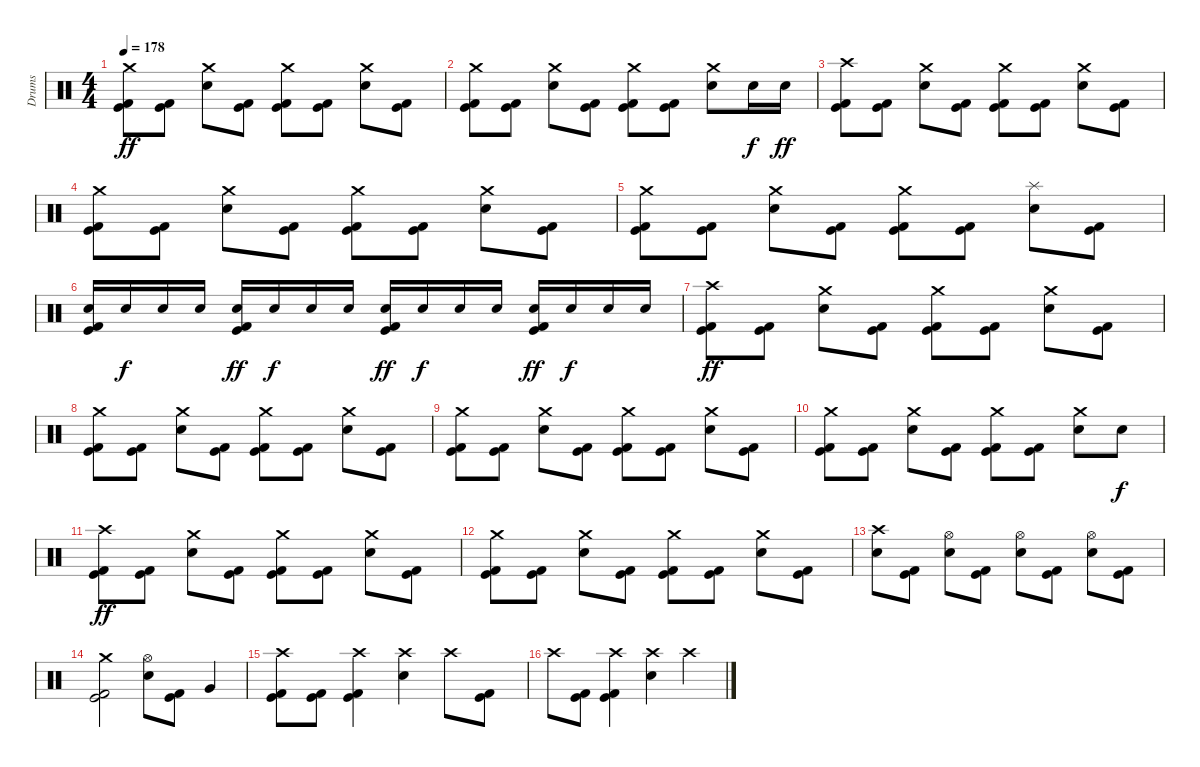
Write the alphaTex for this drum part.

\track ("Drums" "Drums") {instrument percussion}
\staff {score}
\articulation defaults
\ts (4 4)
\tempo 178
\clef neutral
\ks c
("Kick (hit)" "Kick (hit) 2" "Crash medium (hit)").8{dy ff} ("Kick (hit)" "Kick (hit) 2").8 ("Electric Snare (hit)" "Crash medium (hit)").8 ("Kick (hit)" "Kick (hit) 2").8 ("Kick (hit)" "Kick (hit) 2" "Crash medium (hit)").8 ("Kick (hit)" "Kick (hit) 2").8 ("Electric Snare (hit)" "Crash medium (hit)").8 ("Kick (hit)" "Kick (hit) 2").8 |
("Kick (hit)" "Kick (hit) 2" "Crash medium (hit)").8 ("Kick (hit)" "Kick (hit) 2").8 ("Electric Snare (hit)" "Crash medium (hit)").8 ("Kick (hit)" "Kick (hit) 2").8 ("Kick (hit)" "Kick (hit) 2" "Crash medium (hit)").8 ("Kick (hit)" "Kick (hit) 2").8 ("Electric Snare (hit)" "Crash medium (hit)").8 "Electric Snare (hit)".16{dy f} "Electric Snare (hit)".16{dy ff} |
("Kick (hit)" "Kick (hit) 2" "Crash high (hit)").8 ("Kick (hit)" "Kick (hit) 2").8 ("Electric Snare (hit)" "Crash medium (hit)").8 ("Kick (hit)" "Kick (hit) 2").8 ("Kick (hit)" "Kick (hit) 2" "Crash medium (hit)").8 ("Kick (hit)" "Kick (hit) 2").8 ("Electric Snare (hit)" "Crash medium (hit)").8 ("Kick (hit)" "Kick (hit) 2").8 |
("Kick (hit)" "Kick (hit) 2" "Crash medium (hit)").8 ("Kick (hit)" "Kick (hit) 2").8 ("Electric Snare (hit)" "Crash medium (hit)").8 ("Kick (hit)" "Kick (hit) 2").8 ("Kick (hit)" "Kick (hit) 2" "Crash medium (hit)").8 ("Kick (hit)" "Kick (hit) 2").8 ("Electric Snare (hit)" "Crash medium (hit)").8 ("Kick (hit)" "Kick (hit) 2").8 |
("Kick (hit)" "Kick (hit) 2" "Crash medium (hit)").8 ("Kick (hit)" "Kick (hit) 2").8 ("Electric Snare (hit)" "Crash medium (hit)").8 ("Kick (hit)" "Kick (hit) 2").8 ("Kick (hit)" "Kick (hit) 2" "Crash medium (hit)").8 ("Kick (hit)" "Kick (hit) 2").8 ("Electric Snare (hit)" "Splash (hit)").8 ("Kick (hit)" "Kick (hit) 2").8 |
("Kick (hit)" "Kick (hit) 2" "Electric Snare (hit)").16 "Electric Snare (hit)".16{dy f} "Electric Snare (hit)".16 "Electric Snare (hit)".16 ("Kick (hit)" "Kick (hit) 2" "Electric Snare (hit)").16{dy ff} "Electric Snare (hit)".16{dy f} "Electric Snare (hit)".16 "Electric Snare (hit)".16 ("Kick (hit)" "Kick (hit) 2" "Electric Snare (hit)").16{dy ff} "Electric Snare (hit)".16{dy f} "Electric Snare (hit)".16 "Electric Snare (hit)".16 ("Kick (hit)" "Kick (hit) 2" "Electric Snare (hit)").16{dy ff} "Electric Snare (hit)".16{dy f} "Electric Snare (hit)".16 "Electric Snare (hit)".16 |
("Kick (hit)" "Kick (hit) 2" "Crash high (hit)").8{dy ff} ("Kick (hit)" "Kick (hit) 2").8 ("Electric Snare (hit)" "Crash medium (hit)").8 ("Kick (hit)" "Kick (hit) 2").8 ("Kick (hit)" "Kick (hit) 2" "Crash medium (hit)").8 ("Kick (hit)" "Kick (hit) 2").8 ("Electric Snare (hit)" "Crash medium (hit)").8 ("Kick (hit)" "Kick (hit) 2").8 |
("Kick (hit)" "Kick (hit) 2" "Crash medium (hit)").8 ("Kick (hit)" "Kick (hit) 2").8 ("Electric Snare (hit)" "Crash medium (hit)").8 ("Kick (hit)" "Kick (hit) 2").8 ("Kick (hit)" "Kick (hit) 2" "Crash medium (hit)").8 ("Kick (hit)" "Kick (hit) 2").8 ("Electric Snare (hit)" "Crash medium (hit)").8 ("Kick (hit)" "Kick (hit) 2").8 |
("Kick (hit)" "Kick (hit) 2" "Crash medium (hit)").8 ("Kick (hit)" "Kick (hit) 2").8 ("Electric Snare (hit)" "Crash medium (hit)").8 ("Kick (hit)" "Kick (hit) 2").8 ("Kick (hit)" "Kick (hit) 2" "Crash medium (hit)").8 ("Kick (hit)" "Kick (hit) 2").8 ("Electric Snare (hit)" "Crash medium (hit)").8 ("Kick (hit)" "Kick (hit) 2").8 |
("Kick (hit)" "Kick (hit) 2" "Crash medium (hit)").8 ("Kick (hit)" "Kick (hit) 2").8 ("Electric Snare (hit)" "Crash medium (hit)").8 ("Kick (hit)" "Kick (hit) 2").8 ("Kick (hit)" "Kick (hit) 2" "Crash medium (hit)").8 ("Kick (hit)" "Kick (hit) 2").8 ("Electric Snare (hit)" "Crash medium (hit)").8 "Electric Snare (hit)".8{dy f} |
("Kick (hit)" "Kick (hit) 2" "Crash high (hit)").8{dy ff} ("Kick (hit)" "Kick (hit) 2").8 ("Electric Snare (hit)" "Crash medium (hit)").8 ("Kick (hit)" "Kick (hit) 2").8 ("Kick (hit)" "Kick (hit) 2" "Crash medium (hit)").8 ("Kick (hit)" "Kick (hit) 2").8 ("Electric Snare (hit)" "Crash medium (hit)").8 ("Kick (hit)" "Kick (hit) 2").8 |
("Kick (hit)" "Kick (hit) 2" "Crash medium (hit)").8 ("Kick (hit)" "Kick (hit) 2").8 ("Electric Snare (hit)" "Crash medium (hit)").8 ("Kick (hit)" "Kick (hit) 2").8 ("Kick (hit)" "Kick (hit) 2" "Crash medium (hit)").8 ("Kick (hit)" "Kick (hit) 2").8 ("Electric Snare (hit)" "Crash medium (hit)").8 ("Kick (hit)" "Kick (hit) 2").8 |
("Electric Snare (hit)" "Crash high (hit)").8 ("Kick (hit)" "Kick (hit) 2").8 ("Electric Snare (hit)" "Hi-Hat (open)").8 ("Kick (hit)" "Kick (hit) 2").8 ("Electric Snare (hit)" "Hi-Hat (open)").8 ("Kick (hit)" "Kick (hit) 2").8 ("Electric Snare (hit)" "Hi-Hat (open)").8 ("Kick (hit)" "Kick (hit) 2").8 |
("Kick (hit)" "Kick (hit) 2" "Crash medium (hit)").2 ("Electric Snare (hit)" "Hi-Hat (open)").8 ("Kick (hit)" "Kick (hit) 2").8 "Very Low Tom (hit)".4 |
("Kick (hit)" "Kick (hit) 2" "Crash high (hit)").8 ("Kick (hit)" "Kick (hit) 2").8 ("Kick (hit)" "Kick (hit) 2" "Crash high (hit)").4 ("Electric Snare (hit)" "Crash high (hit)").4 "Crash high (hit)".8 ("Kick (hit)" "Kick (hit) 2").8 |
"Crash high (hit)".8 ("Kick (hit)" "Kick (hit) 2").8 ("Kick (hit)" "Kick (hit) 2" "Crash high (hit)").4 ("Electric Snare (hit)" "Crash high (hit)").4 "Crash high (hit)".4
